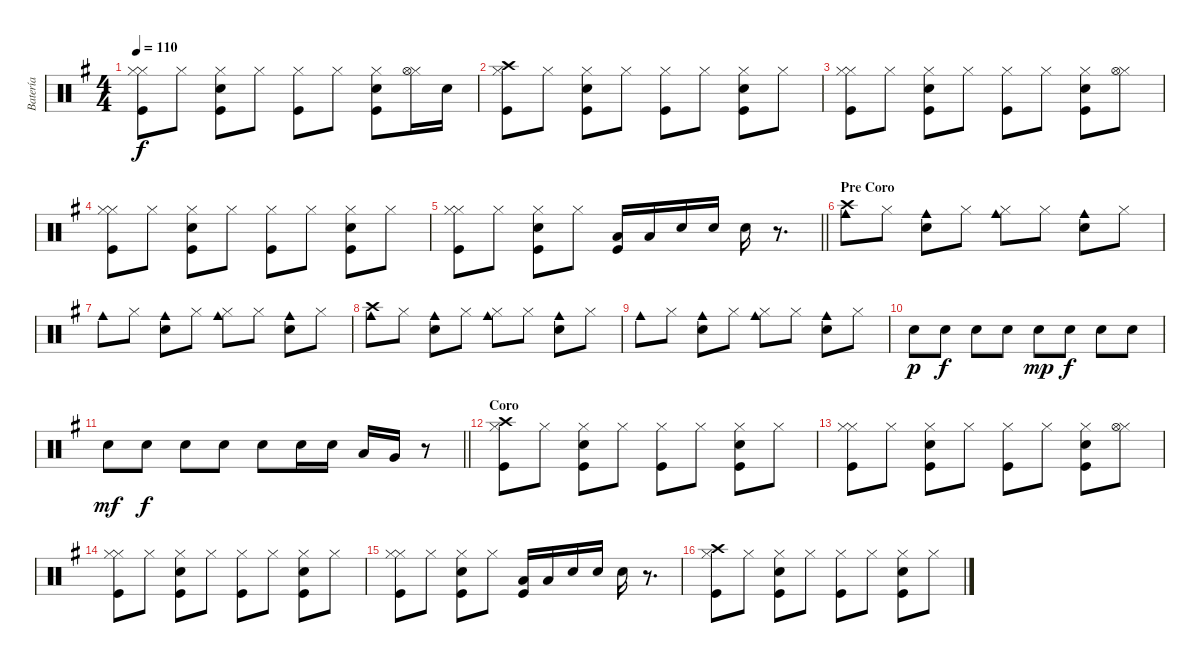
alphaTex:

\track ("Batería" "Batería") {instrument percussion}
\staff {score}
\articulation defaults
\ts (4 4)
\tempo 110
\clef neutral
\ks eminor
("Hi-Hat (closed)" "Hi-Hat (closed)" "Kick (hit)").8{dy f} "Hi-Hat (closed)".8 ("Hi-Hat (closed)" "Snare (hit) 2" "Kick (hit)").8 "Hi-Hat (closed)".8 ("Hi-Hat (closed)" "Kick (hit)").8 "Hi-Hat (closed)".8 ("Hi-Hat (closed)" "Snare (hit) 2" "Kick (hit)").8 ("Hi-Hat (closed)" "Hi-Hat (open)").16 "Snare (hit) 2".16 |
("Crash high (hit)" "Hi-Hat (closed)" "Kick (hit)").8 "Hi-Hat (closed)".8 ("Snare (hit) 2" "Hi-Hat (closed)" "Kick (hit)").8 "Hi-Hat (closed)".8 ("Hi-Hat (closed)" "Kick (hit)").8 "Hi-Hat (closed)".8 ("Hi-Hat (closed)" "Snare (hit) 2" "Kick (hit)").8 "Hi-Hat (closed)".8 |
("Hi-Hat (closed)" "Hi-Hat (closed)" "Kick (hit)").8 "Hi-Hat (closed)".8 ("Hi-Hat (closed)" "Snare (hit) 2" "Kick (hit)").8 "Hi-Hat (closed)".8 ("Hi-Hat (closed)" "Kick (hit)").8 "Hi-Hat (closed)".8 ("Hi-Hat (closed)" "Snare (hit) 2" "Kick (hit)").8 ("Hi-Hat (closed)" "Hi-Hat (open)").8 |
("Hi-Hat (closed)" "Hi-Hat (closed)" "Kick (hit)").8 "Hi-Hat (closed)".8 ("Hi-Hat (closed)" "Snare (hit) 2" "Kick (hit)").8 "Hi-Hat (closed)".8 ("Hi-Hat (closed)" "Kick (hit)").8 "Hi-Hat (closed)".8 ("Hi-Hat (closed)" "Snare (hit) 2" "Kick (hit)").8 "Hi-Hat (closed)".8 |
\barLineRight lightlight
("Hi-Hat (closed)" "Hi-Hat (closed)" "Kick (hit)").8 "Hi-Hat (closed)".8 ("Hi-Hat (closed)" "Snare (hit) 2" "Kick (hit)").8 "Hi-Hat (closed)".8 ("Low Tom (hit)" "Kick (hit)").16 "Low Tom (hit)".16 "Snare (hit) 2".16 "Snare (hit) 2".16 "Snare (hit) 2".16 r.8{d} |
\section ("" "Pre Coro")
("Cowbell medium (hit)" "Crash high (hit)").8 "Hi-Hat (closed)".8 ("Cowbell medium (hit)" "Snare (hit) 2").8 "Hi-Hat (closed)".8 ("Cowbell medium (hit)" "Hi-Hat (closed)").8 "Hi-Hat (closed)".8 ("Cowbell medium (hit)" "Snare (hit) 2").8 "Hi-Hat (closed)".8 |
"Cowbell medium (hit)".8 "Hi-Hat (closed)".8 ("Cowbell medium (hit)" "Snare (hit) 2").8 "Hi-Hat (closed)".8 ("Cowbell medium (hit)" "Hi-Hat (closed)").8 "Hi-Hat (closed)".8 ("Cowbell medium (hit)" "Snare (hit) 2").8 "Hi-Hat (closed)".8 |
("Cowbell medium (hit)" "Crash high (hit)").8 "Hi-Hat (closed)".8 ("Cowbell medium (hit)" "Snare (hit) 2").8 "Hi-Hat (closed)".8 ("Cowbell medium (hit)" "Hi-Hat (closed)").8 "Hi-Hat (closed)".8 ("Cowbell medium (hit)" "Snare (hit) 2").8 "Hi-Hat (closed)".8 |
"Cowbell medium (hit)".8 "Hi-Hat (closed)".8 ("Cowbell medium (hit)" "Snare (hit) 2").8 "Hi-Hat (closed)".8 ("Cowbell medium (hit)" "Hi-Hat (closed)").8 "Hi-Hat (closed)".8 ("Cowbell medium (hit)" "Snare (hit) 2").8 "Hi-Hat (closed)".8 |
"Snare (hit) 2".8{dy p} "Snare (hit) 2".8{dy f} "Snare (hit) 2".8 "Snare (hit) 2".8 "Snare (hit) 2".8{dy mp} "Snare (hit) 2".8{dy f} "Snare (hit) 2".8 "Snare (hit) 2".8 |
\barLineRight lightlight "Snare (hit) 2".8{dy mf} "Snare (hit) 2".8{dy f} "Snare (hit) 2".8 "Snare (hit) 2".8 "Snare (hit) 2".8 "Snare (hit) 2".16 "Snare (hit) 2".16 "Low Tom (hit)".16 "Very Low Tom (hit)".16
r.8 |
\section ("" "Coro")
("Crash high (hit)" "Hi-Hat (closed)" "Kick (hit)").8 "Hi-Hat (closed)".8 ("Snare (hit) 2" "Hi-Hat (closed)" "Kick (hit)").8 "Hi-Hat (closed)".8 ("Hi-Hat (closed)" "Kick (hit)").8 "Hi-Hat (closed)".8 ("Hi-Hat (closed)" "Snare (hit) 2" "Kick (hit)").8 "Hi-Hat (closed)".8 |
("Hi-Hat (closed)" "Hi-Hat (closed)" "Kick (hit)").8 "Hi-Hat (closed)".8 ("Hi-Hat (closed)" "Snare (hit) 2" "Kick (hit)").8 "Hi-Hat (closed)".8 ("Hi-Hat (closed)" "Kick (hit)").8 "Hi-Hat (closed)".8 ("Hi-Hat (closed)" "Snare (hit) 2" "Kick (hit)").8 ("Hi-Hat (closed)" "Hi-Hat (open)").8 |
("Hi-Hat (closed)" "Hi-Hat (closed)" "Kick (hit)").8 "Hi-Hat (closed)".8 ("Hi-Hat (closed)" "Snare (hit) 2" "Kick (hit)").8 "Hi-Hat (closed)".8 ("Hi-Hat (closed)" "Kick (hit)").8 "Hi-Hat (closed)".8 ("Hi-Hat (closed)" "Snare (hit) 2" "Kick (hit)").8 "Hi-Hat (closed)".8 |
("Hi-Hat (closed)" "Hi-Hat (closed)" "Kick (hit)").8 "Hi-Hat (closed)".8 ("Hi-Hat (closed)" "Snare (hit) 2" "Kick (hit)").8 "Hi-Hat (closed)".8 ("Low Tom (hit)" "Kick (hit)").16 "Low Tom (hit)".16 "Snare (hit) 2".16 "Snare (hit) 2".16 "Snare (hit) 2".16 r.8{d} |
("Crash high (hit)" "Hi-Hat (closed)" "Kick (hit)").8 "Hi-Hat (closed)".8 ("Snare (hit) 2" "Hi-Hat (closed)" "Kick (hit)").8 "Hi-Hat (closed)".8 ("Hi-Hat (closed)" "Kick (hit)").8 "Hi-Hat (closed)".8 ("Hi-Hat (closed)" "Snare (hit) 2" "Kick (hit)").8 "Hi-Hat (closed)".8
